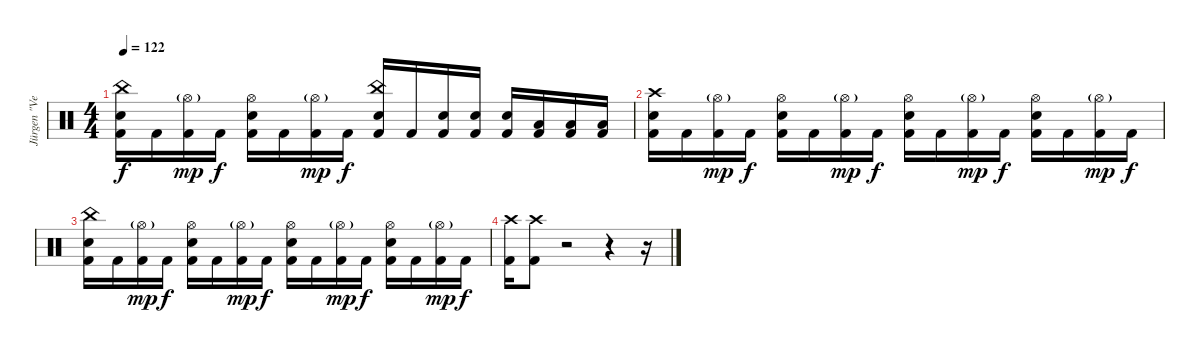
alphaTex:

\track ("Jürgen \"Ventor\" Reil Drums" "Jürgen \"Ve") {instrument percussion}
\staff {score}
\articulation defaults
\ts (4 4)
\tempo 122
\clef neutral
\ks c
("Snare (hit) 2" "China (hit)" "Kick (hit) 2").16{dy f} "Kick (hit) 2".16 ("Hi-Hat (open)"{g} "Kick (hit) 2").16{dy mp} "Kick (hit) 2".16{dy f} ("Snare (hit) 2" "Hi-Hat (open)" "Kick (hit) 2").16 "Kick (hit) 2".16 ("Hi-Hat (open)"{g} "Kick (hit) 2").16{dy mp} "Kick (hit) 2".16{dy f} ("China (hit)" "Snare (hit) 2" "Kick (hit) 2").16 "Kick (hit) 2".16 ("Snare (hit) 2" "Kick (hit) 2").16 ("Snare (hit) 2" "Kick (hit) 2").16 ("Snare (hit) 2" "Kick (hit) 2").16 ("Low Tom (hit)" "Kick (hit) 2").16 ("Low Tom (hit)" "Kick (hit) 2").16 ("Low Floor Tom (hit)" "Kick (hit) 2").16 |
("Snare (hit) 2" "Crash high (hit)" "Kick (hit) 2").16 "Kick (hit) 2".16 ("Hi-Hat (open)"{g} "Kick (hit) 2").16{dy mp} "Kick (hit) 2".16{dy f} ("Snare (hit) 2" "Hi-Hat (open)" "Kick (hit) 2").16 "Kick (hit) 2".16 ("Hi-Hat (open)"{g} "Kick (hit) 2").16{dy mp} "Kick (hit) 2".16{dy f} ("Snare (hit) 2" "Hi-Hat (open)" "Kick (hit) 2").16 "Kick (hit) 2".16 ("Hi-Hat (open)"{g} "Kick (hit) 2").16{dy mp} "Kick (hit) 2".16{dy f} ("Snare (hit) 2" "Hi-Hat (open)" "Kick (hit) 2").16 "Kick (hit) 2".16 ("Hi-Hat (open)"{g} "Kick (hit) 2").16{dy mp} "Kick (hit) 2".16{dy f} |
("Snare (hit) 2" "China (hit)" "Kick (hit) 2").16 "Kick (hit) 2".16 ("Hi-Hat (open)"{g} "Kick (hit) 2").16{dy mp} "Kick (hit) 2".16{dy f} ("Snare (hit) 2" "Hi-Hat (open)" "Kick (hit) 2").16 "Kick (hit) 2".16 ("Hi-Hat (open)"{g} "Kick (hit) 2").16{dy mp} "Kick (hit) 2".16{dy f} ("Snare (hit) 2" "Hi-Hat (open)" "Kick (hit) 2").16 "Kick (hit) 2".16 ("Hi-Hat (open)"{g} "Kick (hit) 2").16{dy mp} "Kick (hit) 2".16{dy f} ("Snare (hit) 2" "Hi-Hat (open)" "Kick (hit) 2").16 "Kick (hit) 2".16 ("Hi-Hat (open)"{g} "Kick (hit) 2").16{dy mp} "Kick (hit) 2".16{dy f} |
("Crash high (hit)" "Kick (hit) 2").16 ("Crash high (hit)" "Kick (hit) 2").8 r.2{volume 0} r.4 r.16
